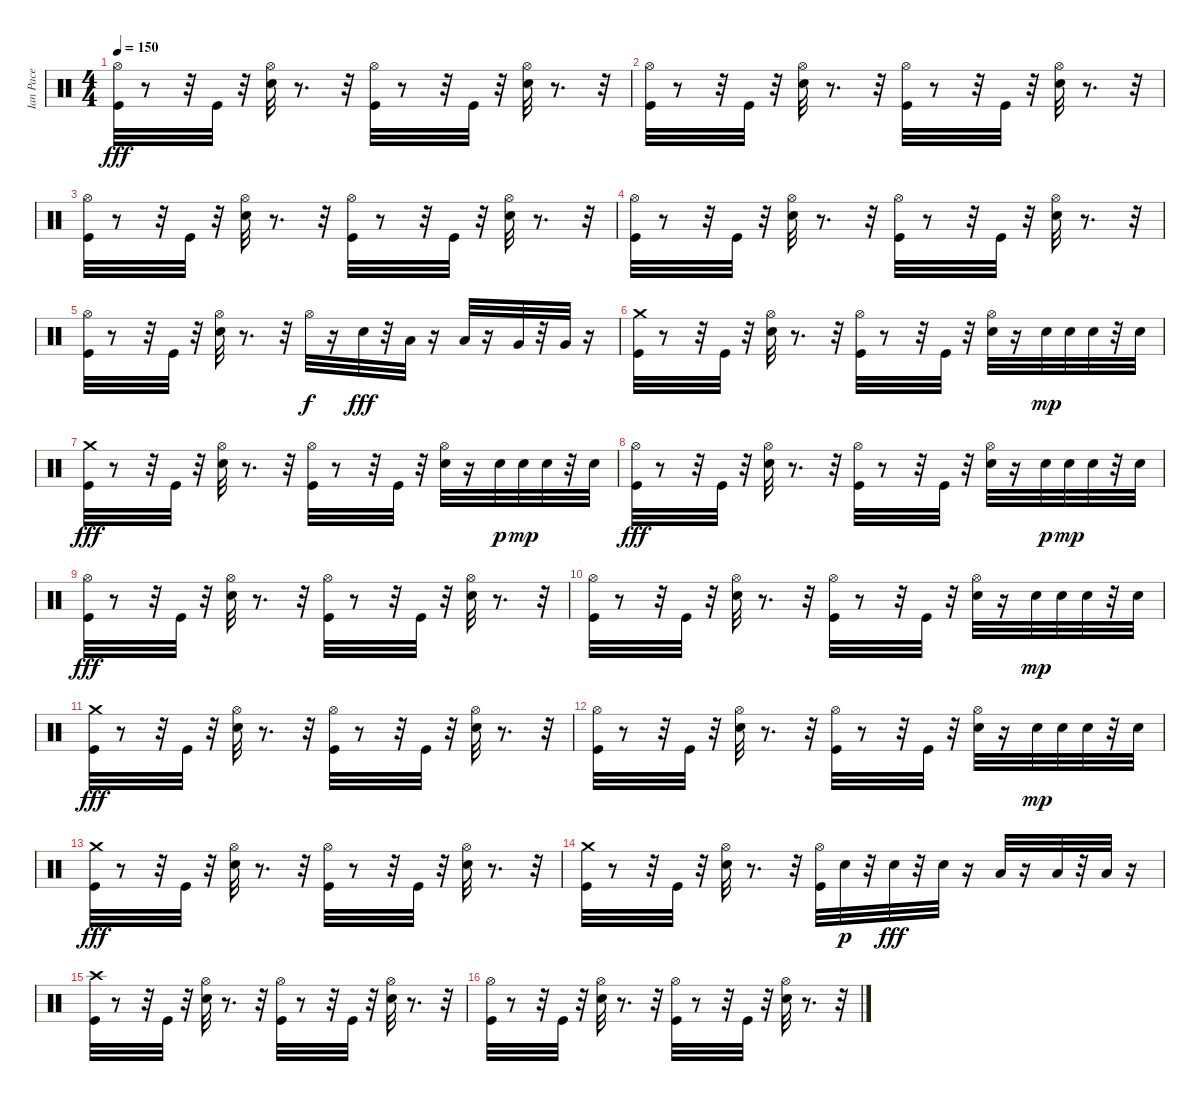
\track ("Ian Pace" "Ian Pace") {instrument percussion}
\staff {score}
\articulation defaults
\ts (4 4)
\tempo 150
\clef neutral
\ks c
("Hi-Hat (open)" "Kick (hit)").32{dy fff} r.8 r.32 "Kick (hit)".32 r.32 ("Hi-Hat (open)" "Electric Snare (hit)").32 r.8{d} r.32 ("Hi-Hat (open)" "Kick (hit)").32 r.8 r.32 "Kick (hit)".32 r.32 ("Hi-Hat (open)" "Electric Snare (hit)").32 r.8{d} r.32 |
("Hi-Hat (open)" "Kick (hit)").32 r.8 r.32 "Kick (hit)".32 r.32 ("Hi-Hat (open)" "Electric Snare (hit)").32 r.8{d} r.32 ("Hi-Hat (open)" "Kick (hit)").32 r.8 r.32 "Kick (hit)".32 r.32 ("Hi-Hat (open)" "Electric Snare (hit)").32 r.8{d} r.32 |
("Hi-Hat (open)" "Kick (hit)").32 r.8 r.32 "Kick (hit)".32 r.32 ("Hi-Hat (open)" "Electric Snare (hit)").32 r.8{d} r.32 ("Hi-Hat (open)" "Kick (hit)").32 r.8 r.32 "Kick (hit)".32 r.32 ("Hi-Hat (open)" "Electric Snare (hit)").32 r.8{d} r.32 |
("Hi-Hat (open)" "Kick (hit)").32 r.8 r.32 "Kick (hit)".32 r.32 ("Hi-Hat (open)" "Electric Snare (hit)").32 r.8{d} r.32 ("Hi-Hat (open)" "Kick (hit)").32 r.8 r.32 "Kick (hit)".32 r.32 ("Hi-Hat (open)" "Electric Snare (hit)").32 r.8{d} r.32 |
("Hi-Hat (open)" "Kick (hit)").32 r.8 r.32 "Kick (hit)".32 r.32 ("Hi-Hat (open)" "Electric Snare (hit)").32 r.8{d} r.32 "Hi-Hat (open)".32{dy f} r.16 "Electric Snare (hit)".32{dy fff} r.32 "Low Tom (hit)".32 r.16 "Low Tom (hit)".32 r.16 "Very Low Tom (hit)".32 r.32 "Very Low Tom (hit)".32 r.16 |
("Crash medium (hit)" "Kick (hit)").32 r.8 r.32 "Kick (hit)".32 r.32 ("Hi-Hat (open)" "Electric Snare (hit)").32 r.8{d} r.32 ("Hi-Hat (open)" "Kick (hit)").32 r.8 r.32 "Kick (hit)".32 r.32 ("Hi-Hat (open)" "Electric Snare (hit)").32 r.16 "Electric Snare (hit)".32{dy mp} "Electric Snare (hit)".32 "Electric Snare (hit)".32 r.32 "Electric Snare (hit)".32 |
("Kick (hit)" "Crash medium (hit)").32{dy fff} r.8 r.32 "Kick (hit)".32 r.32 ("Electric Snare (hit)" "Hi-Hat (open)").32 r.8{d} r.32 ("Kick (hit)" "Hi-Hat (open)").32 r.8 r.32 "Kick (hit)".32 r.32 ("Electric Snare (hit)" "Hi-Hat (open)").32 r.16 "Electric Snare (hit)".32{dy p} "Electric Snare (hit)".32{dy mp} "Electric Snare (hit)".32 r.32 "Electric Snare (hit)".32 |
("Kick (hit)" "Hi-Hat (open)").32{dy fff} r.8 r.32 "Kick (hit)".32 r.32 ("Hi-Hat (open)" "Electric Snare (hit)").32 r.8{d} r.32 ("Kick (hit)" "Hi-Hat (open)").32 r.8 r.32 "Kick (hit)".32 r.32 ("Hi-Hat (open)" "Electric Snare (hit)").32 r.16 "Electric Snare (hit)".32{dy p} "Electric Snare (hit)".32{dy mp} "Electric Snare (hit)".32 r.32 "Electric Snare (hit)".32 |
("Hi-Hat (open)" "Kick (hit)").32{dy fff} r.8 r.32 "Kick (hit)".32 r.32 ("Hi-Hat (open)" "Electric Snare (hit)").32 r.8{d} r.32 ("Kick (hit)" "Hi-Hat (open)").32 r.8 r.32 "Kick (hit)".32 r.32 ("Electric Snare (hit)" "Hi-Hat (open)").32 r.8{d} r.32 |
("Hi-Hat (open)" "Kick (hit)").32 r.8 r.32 "Kick (hit)".32 r.32 ("Hi-Hat (open)" "Electric Snare (hit)").32 r.8{d} r.32 ("Hi-Hat (open)" "Kick (hit)").32 r.8 r.32 "Kick (hit)".32 r.32 ("Hi-Hat (open)" "Electric Snare (hit)").32 r.16 "Electric Snare (hit)".32{dy mp} "Electric Snare (hit)".32 "Electric Snare (hit)".32 r.32 "Electric Snare (hit)".32 |
("Kick (hit)" "Crash medium (hit)").32{dy fff} r.8 r.32 "Kick (hit)".32 r.32 ("Hi-Hat (open)" "Electric Snare (hit)").32 r.8{d} r.32 ("Kick (hit)" "Hi-Hat (open)").32 r.8 r.32 "Kick (hit)".32 r.32 ("Electric Snare (hit)" "Hi-Hat (open)").32 r.8{d} r.32 |
("Kick (hit)" "Hi-Hat (open)").32 r.8 r.32 "Kick (hit)".32 r.32 ("Electric Snare (hit)" "Hi-Hat (open)").32 r.8{d} r.32 ("Hi-Hat (open)" "Kick (hit)").32 r.8 r.32 "Kick (hit)".32 r.32 ("Hi-Hat (open)" "Electric Snare (hit)").32 r.16 "Electric Snare (hit)".32{dy mp} "Electric Snare (hit)".32 "Electric Snare (hit)".32 r.32 "Electric Snare (hit)".32 |
("Crash medium (hit)" "Kick (hit)").32{dy fff} r.8 r.32 "Kick (hit)".32 r.32 ("Hi-Hat (open)" "Electric Snare (hit)").32 r.8{d} r.32 ("Hi-Hat (open)" "Kick (hit)").32 r.8 r.32 "Kick (hit)".32 r.32 ("Hi-Hat (open)" "Electric Snare (hit)").32 r.8{d} r.32 |
("Kick (hit)" "Crash medium (hit)").32 r.8 r.32 "Kick (hit)".32 r.32 ("Hi-Hat (open)" "Electric Snare (hit)").32 r.8{d} r.32 ("Hi-Hat (open)" "Kick (hit)").32 "Electric Snare (hit)".32{dy p} r.32 "Electric Snare (hit)".32{dy fff} r.32 "Electric Snare (hit)".32 r.16 "Low Tom (hit)".32 r.16 "Low Tom (hit)".32 r.32 "Low Tom (hit)".32 r.16 |
("Crash high (hit)" "Kick (hit)").32 r.8 r.32 "Kick (hit)".32 r.32 ("Hi-Hat (open)" "Electric Snare (hit)").32 r.8{d} r.32 ("Kick (hit)" "Hi-Hat (open)").32 r.8 r.32 "Kick (hit)".32 r.32 ("Hi-Hat (open)" "Electric Snare (hit)").32 r.8{d} r.32 |
("Hi-Hat (open)" "Kick (hit)").32 r.8 r.32 "Kick (hit)".32 r.32 ("Electric Snare (hit)" "Hi-Hat (open)").32 r.8{d} r.32 ("Hi-Hat (open)" "Kick (hit)").32 r.8 r.32 "Kick (hit)".32 r.32 ("Electric Snare (hit)" "Hi-Hat (open)").32 r.8{d} r.32
